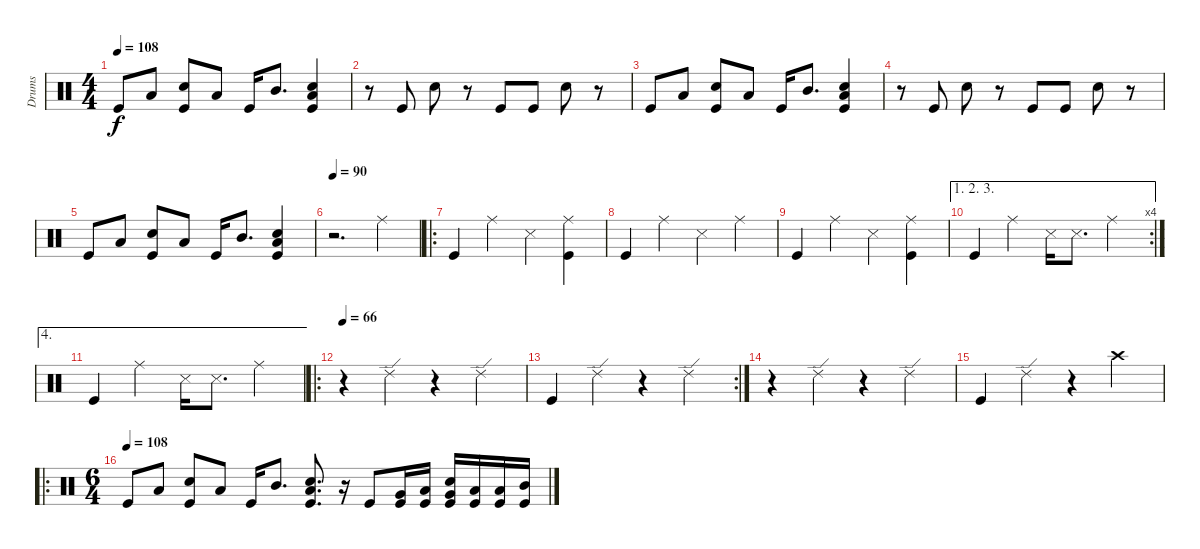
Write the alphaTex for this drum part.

\track ("Drums" "Drums") {instrument percussion}
\staff {score}
\articulation defaults
\ts (4 4)
\tempo 108
\clef neutral
\ks c "Kick (hit)".8{dy f} "Low Tom (hit)".8
("Snare (hit) 2" "Kick (hit)").8 "Low Tom (hit)".8 "Kick (hit)".16 "Mid Tom (hit)".8{d} ("Low Tom (hit)" "Snare (hit) 2" "Kick (hit)").4 |
r.8 "Kick (hit)".8 "Snare (hit) 2".8 r.8 "Kick (hit)".8 "Kick (hit)".8 "Snare (hit) 2".8 r.8 |
"Kick (hit)".8 "Low Tom (hit)".8 ("Snare (hit) 2" "Kick (hit)").8 "Low Tom (hit)".8 "Kick (hit)".16 "Mid Tom (hit)".8{d} ("Low Tom (hit)" "Snare (hit) 2" "Kick (hit)").4 |
r.8 "Kick (hit)".8 "Snare (hit) 2".8 r.8 "Kick (hit)".8 "Kick (hit)".8 "Snare (hit) 2".8 r.8 |
"Kick (hit)".8 "Low Tom (hit)".8 ("Snare (hit) 2" "Kick (hit)").8 "Low Tom (hit)".8 "Kick (hit)".16 "Mid Tom (hit)".8{d} ("Low Tom (hit)" "Snare (hit) 2" "Kick (hit)").4 |
\tempo 90
r.2{d} "Ride (middle)".4 |
\ro "Kick (hit)".4 "Ride (middle)".4 "Snare (side stick) 3".4
("Ride (middle)" "Kick (hit)").4 |
"Kick (hit)".4 "Ride (middle)".4 "Snare (side stick) 3"{acc b}.4 "Ride (middle)".4 |
"Kick (hit)".4 "Ride (middle)".4 "Snare (side stick) 3".4 ("Ride (middle)" "Kick (hit)").4 |
\ae (1 2 3)
\rc 4 "Kick (hit)".4 "Ride (middle)".4 "Snare (side stick) 3".16 "Snare (side stick) 3".8{d} "Ride (middle)".4
|
\ae 4 "Kick (hit)".4 "Ride (middle)".4 "Snare (side stick) 3".16 "Snare (side stick) 3".8{d} "Ride (middle)".4
|
\ro
\tempo 66
r.4 "Ride (edge) 2".4 r.4 "Ride (edge) 2".4 |
\rc 2 "Kick (hit)".4 "Ride (edge) 2".4
r.4 "Ride (edge) 2".4 |
r.4 "Ride (edge) 2".4 r.4 "Ride (edge) 2".4 |
"Kick (hit)".4 "Ride (edge) 2".4 r.4 "Crash high (hit)".4 |
\ro
\ts (6 4)
\tempo (108)
"Kick (hit)".8 "Low Tom (hit)".8 ("Snare (hit) 2" "Kick (hit)").8 "Low Tom (hit)".8 "Kick (hit)".16 "Mid Tom (hit)".8{d} ("Low Tom (hit)" "Snare (hit) 2" "Kick (hit)").8{d} r.16 "Kick (hit)".8 ("Very Low Tom (hit)" "Kick (hit)").16 ("Low Tom (hit)" "Kick (hit)").16 ("Very Low Tom (hit)" "Snare (hit) 2" "Kick (hit)").16 ("Low Floor Tom (hit)" "Kick (hit)").16 ("Low Tom (hit)" "Kick (hit)").16 ("Mid Tom (hit)" "Kick (hit)").16
